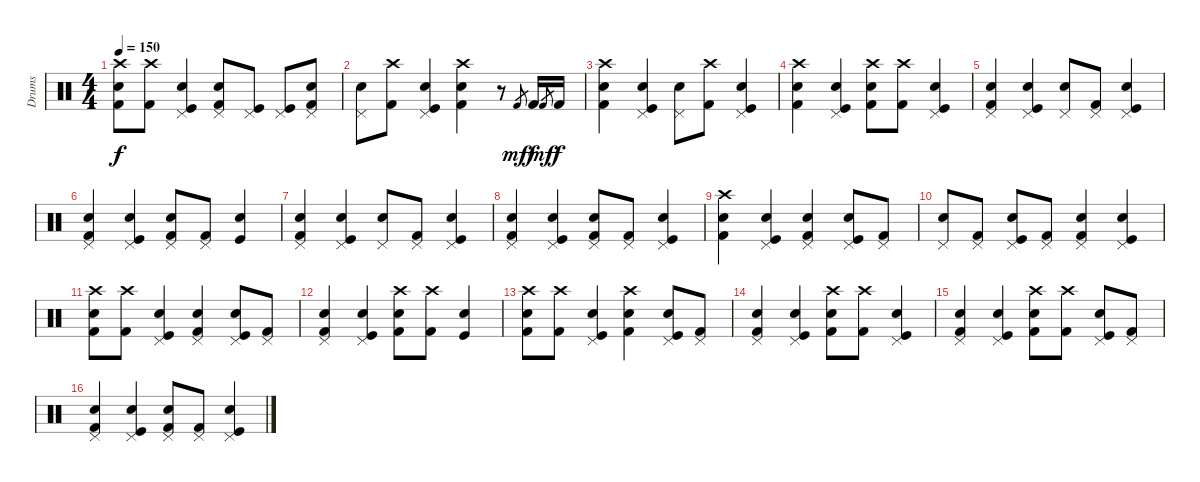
\track ("Drums" "Drums") {instrument percussion}
\staff {score}
\articulation defaults
\ts (4 4)
\tempo 150
\clef neutral
\ks c
("Kick (hit) 2" "Electric Snare (hit)" "Crash high (hit)").8{dy f} ("Kick (hit) 2" "Crash high (hit)").8 ("Kick (hit)" "Electric Snare (hit)" "Pedal Hi-Hat (hit)").4 ("Kick (hit) 2" "Electric Snare (hit)" "Pedal Hi-Hat (hit)").8 ("Kick (hit)" "Pedal Hi-Hat (hit)").8 ("Kick (hit)" "Pedal Hi-Hat (hit)").8 ("Kick (hit) 2" "Electric Snare (hit)" "Pedal Hi-Hat (hit)").8 |
("Electric Snare (hit)" "Pedal Hi-Hat (hit)").8 ("Kick (hit) 2" "Crash high (hit)").8 ("Kick (hit)" "Electric Snare (hit)" "Pedal Hi-Hat (hit)").4 ("Kick (hit) 2" "Electric Snare (hit)" "Crash high (hit)").4 r.8 "Kick (hit) 2".8{gr dy mf} "Kick (hit) 2".16{dy f} "Kick (hit) 2".8{gr dy mf} "Kick (hit) 2".16{dy f} |
("Kick (hit) 2" "Electric Snare (hit)" "Crash high (hit)").4 ("Kick (hit)" "Electric Snare (hit)" "Pedal Hi-Hat (hit)").4 ("Electric Snare (hit)" "Pedal Hi-Hat (hit)").8 ("Kick (hit) 2" "Crash high (hit)").8 ("Kick (hit)" "Electric Snare (hit)" "Pedal Hi-Hat (hit)").4 |
("Kick (hit) 2" "Electric Snare (hit)" "Crash high (hit)").4 ("Kick (hit)" "Electric Snare (hit)" "Pedal Hi-Hat (hit)").4 ("Kick (hit) 2" "Electric Snare (hit)" "Crash high (hit)").8 ("Kick (hit) 2" "Crash high (hit)").8 ("Kick (hit)" "Electric Snare (hit)" "Pedal Hi-Hat (hit)").4 |
("Kick (hit) 2" "Electric Snare (hit)" "Pedal Hi-Hat (hit)").4 ("Kick (hit)" "Electric Snare (hit)" "Pedal Hi-Hat (hit)").4 ("Electric Snare (hit)" "Pedal Hi-Hat (hit)").8 ("Kick (hit) 2" "Pedal Hi-Hat (hit)").8 ("Kick (hit)" "Electric Snare (hit)" "Pedal Hi-Hat (hit)").4 |
("Kick (hit) 2" "Electric Snare (hit)" "Pedal Hi-Hat (hit)").4 ("Kick (hit)" "Electric Snare (hit)" "Pedal Hi-Hat (hit)").4 ("Kick (hit) 2" "Electric Snare (hit)" "Pedal Hi-Hat (hit)").8 ("Kick (hit) 2" "Pedal Hi-Hat (hit)").8 ("Kick (hit)" "Electric Snare (hit)").4 |
("Kick (hit) 2" "Electric Snare (hit)" "Pedal Hi-Hat (hit)").4 ("Kick (hit)" "Electric Snare (hit)" "Pedal Hi-Hat (hit)").4 ("Electric Snare (hit)" "Pedal Hi-Hat (hit)").8 ("Kick (hit) 2" "Pedal Hi-Hat (hit)").8 ("Kick (hit)" "Electric Snare (hit)" "Pedal Hi-Hat (hit)").4 |
("Kick (hit) 2" "Electric Snare (hit)" "Pedal Hi-Hat (hit)").4 ("Kick (hit)" "Electric Snare (hit)" "Pedal Hi-Hat (hit)").4 ("Kick (hit) 2" "Electric Snare (hit)" "Pedal Hi-Hat (hit)").8 ("Kick (hit) 2" "Pedal Hi-Hat (hit)").8 ("Kick (hit)" "Electric Snare (hit)" "Pedal Hi-Hat (hit)").4 |
("Kick (hit) 2" "Electric Snare (hit)" "Crash high (hit)").4 ("Kick (hit)" "Electric Snare (hit)" "Pedal Hi-Hat (hit)").4 ("Kick (hit) 2" "Electric Snare (hit)" "Pedal Hi-Hat (hit)").4 ("Kick (hit)" "Electric Snare (hit)" "Pedal Hi-Hat (hit)").8 ("Kick (hit) 2" "Pedal Hi-Hat (hit)").8 |
("Electric Snare (hit)" "Pedal Hi-Hat (hit)").8 ("Kick (hit) 2" "Pedal Hi-Hat (hit)").8 ("Kick (hit)" "Electric Snare (hit)" "Pedal Hi-Hat (hit)").8 ("Kick (hit) 2" "Pedal Hi-Hat (hit)").8 ("Kick (hit) 2" "Electric Snare (hit)" "Pedal Hi-Hat (hit)").4 ("Kick (hit)" "Electric Snare (hit)" "Pedal Hi-Hat (hit)").4 |
("Kick (hit) 2" "Electric Snare (hit)" "Crash high (hit)").8 ("Kick (hit) 2" "Crash high (hit)").8 ("Kick (hit)" "Electric Snare (hit)" "Pedal Hi-Hat (hit)").4 ("Kick (hit) 2" "Electric Snare (hit)" "Pedal Hi-Hat (hit)").4 ("Kick (hit)" "Electric Snare (hit)" "Pedal Hi-Hat (hit)").8 ("Kick (hit) 2" "Pedal Hi-Hat (hit)").8 |
("Kick (hit) 2" "Electric Snare (hit)" "Pedal Hi-Hat (hit)").4 ("Kick (hit)" "Electric Snare (hit)" "Pedal Hi-Hat (hit)").4 ("Kick (hit) 2" "Electric Snare (hit)" "Crash high (hit)").8 ("Kick (hit) 2" "Crash high (hit)").8 ("Kick (hit)" "Electric Snare (hit)").4 |
("Kick (hit) 2" "Electric Snare (hit)" "Crash high (hit)").8 ("Kick (hit) 2" "Crash high (hit)").8 ("Kick (hit)" "Electric Snare (hit)" "Pedal Hi-Hat (hit)").4 ("Kick (hit) 2" "Electric Snare (hit)" "Crash high (hit)").4 ("Kick (hit)" "Electric Snare (hit)" "Pedal Hi-Hat (hit)").8 ("Kick (hit) 2" "Pedal Hi-Hat (hit)").8 |
("Kick (hit) 2" "Electric Snare (hit)" "Pedal Hi-Hat (hit)").4 ("Kick (hit)" "Electric Snare (hit)" "Pedal Hi-Hat (hit)").4 ("Kick (hit) 2" "Electric Snare (hit)" "Crash high (hit)").8 ("Kick (hit) 2" "Crash high (hit)").8 ("Kick (hit)" "Electric Snare (hit)" "Pedal Hi-Hat (hit)").4 |
("Kick (hit) 2" "Electric Snare (hit)" "Pedal Hi-Hat (hit)").4 ("Kick (hit)" "Electric Snare (hit)" "Pedal Hi-Hat (hit)").4 ("Kick (hit) 2" "Electric Snare (hit)" "Crash high (hit)").8 ("Kick (hit) 2" "Crash high (hit)").8 ("Kick (hit)" "Electric Snare (hit)" "Pedal Hi-Hat (hit)").8 ("Kick (hit) 2" "Pedal Hi-Hat (hit)").8 |
("Kick (hit) 2" "Electric Snare (hit)" "Pedal Hi-Hat (hit)").4 ("Kick (hit)" "Electric Snare (hit)" "Pedal Hi-Hat (hit)").4 ("Kick (hit) 2" "Electric Snare (hit)" "Pedal Hi-Hat (hit)").8 ("Kick (hit) 2" "Pedal Hi-Hat (hit)").8 ("Kick (hit)" "Electric Snare (hit)" "Pedal Hi-Hat (hit)").4
